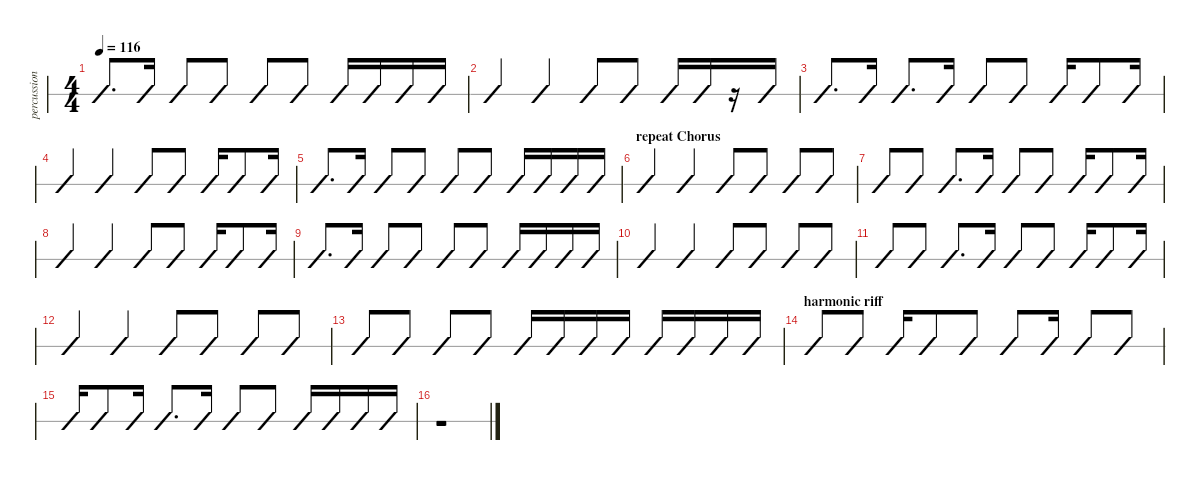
\defaultSystemsLayout 4
\hideDynamics
\bracketExtendMode nobrackets
\track ("Drums" "percussion") {instrument percussion}
\staff {slash}
\articulation defaults
\voice
\ts (4 4)
\tempo 116
\clef neutral
\ks c
("Crash medium (hit)" "Kick (hit) 2").8{d dy f} "Kick (hit) 2".16 ("Crash medium (hit)" "Snare (hit) 2").8 ("Crash high (hit)" "Kick (hit) 2").8 "Crash medium (hit)".8 "Kick (hit) 2".8 ("Crash medium (hit)" "Snare (hit) 2").16 "Kick (hit) 2".16 "Snare (hit) 2".16 "Snare (hit) 2".16 |
("Crash medium (hit)" "Kick (hit) 2").4 ("Crash medium (hit)" "Snare (hit) 2").4 "Crash medium (hit)".8 "Kick (hit) 2".8 ("Crash medium (hit)" "Snare (hit) 2").16 "Kick (hit) 2".16 r.16 "Kick (hit) 2".16 |
("Crash medium (hit)" "Kick (hit) 2").8{d} "Kick (hit) 2".16 ("Crash medium (hit)" "Snare (hit) 2").8{d} "Snare (hit) 2".16 "Crash medium (hit)".8 "Kick (hit) 2".8 ("Crash medium (hit)" "Snare (hit) 2").16 "Kick (hit) 2".8 "Kick (hit) 2".16 |
("Crash medium (hit)" "Kick (hit) 2").4 ("Crash medium (hit)" "Snare (hit) 2").4 "Crash medium (hit)".8 "Kick (hit) 2".8 ("Crash medium (hit)" "Snare (hit) 2").16 "Kick (hit) 2".8 "Kick (hit) 2".16 |
("Crash medium (hit)" "Kick (hit) 2").8{d} "Kick (hit) 2".16 ("Crash medium (hit)" "Snare (hit) 2").8 ("Crash high (hit)" "Kick (hit) 2").8 "Crash medium (hit)".8 "Kick (hit) 2".8 ("China (hit)" "Snare (hit) 2").16 "Kick (hit) 2".16 "Snare (hit) 2".16 "Snare (hit) 2".16 |
\section ("" "repeat Chorus")
("Crash high (hit)" "Kick (hit) 2").4 ("Crash high (hit)" "Snare (hit) 2").4 ("Crash high (hit)" "Kick (hit) 2").8 "Kick (hit) 2".8 ("Crash high (hit)" "Snare (hit) 2").8 "Kick (hit) 2".8 |
"Crash high (hit)".8 "Kick (hit) 2".8 ("Crash high (hit)" "Snare (hit) 2").8{d} "Snare (hit) 2".16 "Crash high (hit)".8 "Kick (hit) 2".8 ("Crash high (hit)" "Snare (hit) 2").16 "Kick (hit) 2".8 "Kick (hit) 2".16 |
("Crash high (hit)" "Kick (hit) 2").4 ("Crash high (hit)" "Snare (hit) 2").4 "Crash high (hit)".8 "Kick (hit) 2".8 ("Crash high (hit)" "Snare (hit) 2").16 "Kick (hit) 2".8 "Kick (hit) 2".16 |
("Crash high (hit)" "Kick (hit) 2").8{d} "Kick (hit) 2".16 ("Crash high (hit)" "Snare (hit) 2").8 ("Crash medium (hit)" "Kick (hit) 2").8 "Crash high (hit)".8 "Kick (hit) 2".8 ("Crash high (hit)" "Snare (hit) 2").16 "Kick (hit) 2".16 "Snare (hit) 2".16 "Snare (hit) 2".16 |
("Crash high (hit)" "Kick (hit) 2").4 ("Crash high (hit)" "Snare (hit) 2").4 ("Crash high (hit)" "Kick (hit) 2").8 "Kick (hit) 2".8 ("Crash high (hit)" "Snare (hit) 2").8 "Kick (hit) 2".8 |
"Crash high (hit)".8 "Kick (hit) 2".8 ("Crash high (hit)" "Snare (hit) 2").8{d} "Snare (hit) 2".16 "Crash high (hit)".8 "Kick (hit) 2".8 ("Crash high (hit)" "Snare (hit) 2").16 "Kick (hit) 2".8 "Kick (hit) 2".16 |
("Crash high (hit)" "Kick (hit) 2").4 ("Crash high (hit)" "Snare (hit) 2").4 "Crash high (hit)".8 "Kick (hit) 2".8 ("Crash high (hit)" "Snare (hit) 2").8 "Kick (hit) 2".8 |
"Crash high (hit)".8 "Kick (hit) 2".8 ("Crash high (hit)" "Snare (hit) 2").8 "Kick (hit) 2".8 ("Crash high (hit)" "Snare (hit) 2").16 "Kick (hit) 2".16 "Snare (hit) 2".16 "Snare (hit) 2".16 "Snare (hit) 2".16 "Kick (hit) 2".16 "Snare (hit) 2".16 "Snare (hit) 2".16 |
\section ("" "harmonic riff")
("China (hit)" "Kick (hit) 2").8 ("Splash (hit)" "Kick (hit) 2").8 "Snare (hit) 2".16 ("Crash medium (hit)" "Kick (hit) 2").8 ("China (hit)" "Kick (hit) 2").8 "Hi-Hat (open)".8 "Kick (hit) 2".16 ("Crash medium (hit)" "Snare (hit) 2").8 "Kick (hit) 2".8 |
"Hi-Hat (open)".16 "Kick (hit) 2".8 "Kick (hit) 2".16 ("Crash medium (hit)" "Snare (hit) 2").8{d} "Kick (hit) 2".16 ("Crash high (hit)" "Kick (hit) 2").8 "Kick (hit) 2".8 "Snare (hit) 2".16 "Kick (hit) 2".16 "Snare (hit) 2".16 "Snare (hit) 2".16 |
r.1
\voice
\clef neutral
\ottava regular
\simile none
\ks c
r.4{dy mf} r.4 r.4 r.4 |
r.4 r.4 r.4 r.4 |
r.4 r.4 r.4 r.4 |
r.4 r.4 r.4 r.4 |
r.4 r.4 r.4 r.4 |
r.4 r.4 r.4 r.4 |
r.4 r.4 r.4 r.4 |
r.4 r.4 r.4 r.4 |
r.4 r.4 r.4 r.4 |
r.4 r.4 r.4 r.4 |
r.4 r.4 r.4 r.4 |
r.4 r.4 r.4 r.4 |
r.4 r.4 r.4 r.4 |
r.4 r.4 r.4 r.4 |
r.4 r.4 r.4 r.4 |
r.4 r.4 r.4 r.4
